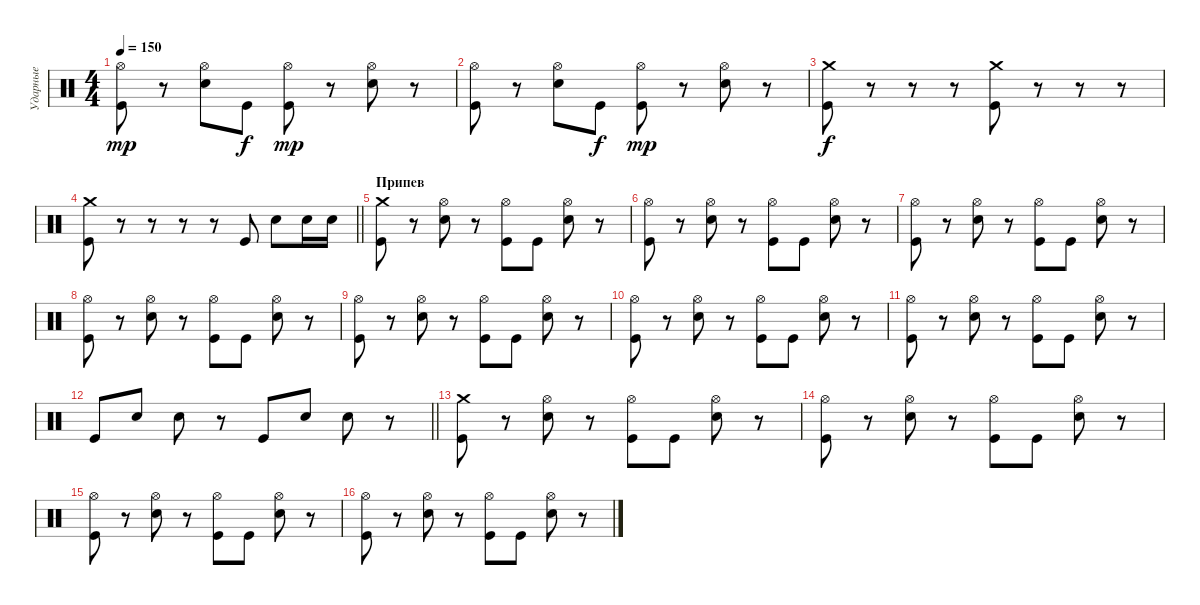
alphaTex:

\track ("Ударные" "Ударные") {instrument percussion}
\staff {score}
\articulation defaults
\ts (4 4)
\tempo 150
\clef neutral
\ks c
("Hi-Hat (open)" "Kick (hit)").8{dy mp} r.8 ("Hi-Hat (open)" "Electric Snare (hit)").8 "Kick (hit)".8{dy f} ("Hi-Hat (open)" "Kick (hit)").8{dy mp} r.8 ("Hi-Hat (open)" "Electric Snare (hit)").8 r.8 |
("Hi-Hat (open)" "Kick (hit)").8 r.8 ("Hi-Hat (open)" "Electric Snare (hit)").8 "Kick (hit)".8{dy f} ("Hi-Hat (open)" "Kick (hit)").8{dy mp} r.8 ("Hi-Hat (open)" "Electric Snare (hit)").8 r.8 |
("Crash medium (hit)" "Kick (hit)").8{dy f} r.8 r.8 r.8 ("Crash medium (hit)" "Kick (hit)").8 r.8 r.8 r.8 |
\barLineRight lightlight
("Crash medium (hit)" "Kick (hit)").8 r.8 r.8 r.8 r.8 "Kick (hit)".8 "Electric Snare (hit)".8 "Electric Snare (hit)".16 "Electric Snare (hit)".16 |
\section ("" "Припев")
("Crash medium (hit)" "Kick (hit)").8 r.8 ("Hi-Hat (open)" "Electric Snare (hit)").8 r.8 ("Hi-Hat (open)" "Kick (hit)").8 "Kick (hit)".8 ("Hi-Hat (open)" "Electric Snare (hit)").8 r.8 |
("Hi-Hat (open)" "Kick (hit)").8 r.8 ("Hi-Hat (open)" "Electric Snare (hit)").8 r.8 ("Hi-Hat (open)" "Kick (hit)").8 "Kick (hit)".8 ("Hi-Hat (open)" "Electric Snare (hit)").8 r.8 |
("Hi-Hat (open)" "Kick (hit)").8 r.8 ("Hi-Hat (open)" "Electric Snare (hit)").8 r.8 ("Hi-Hat (open)" "Kick (hit)").8 "Kick (hit)".8 ("Hi-Hat (open)" "Electric Snare (hit)").8 r.8 |
("Hi-Hat (open)" "Kick (hit)").8 r.8 ("Hi-Hat (open)" "Electric Snare (hit)").8 r.8 ("Hi-Hat (open)" "Kick (hit)").8 "Kick (hit)".8 ("Hi-Hat (open)" "Electric Snare (hit)").8 r.8 |
("Hi-Hat (open)" "Kick (hit)").8 r.8 ("Hi-Hat (open)" "Electric Snare (hit)").8 r.8 ("Hi-Hat (open)" "Kick (hit)").8 "Kick (hit)".8 ("Hi-Hat (open)" "Electric Snare (hit)").8 r.8 |
("Hi-Hat (open)" "Kick (hit)").8 r.8 ("Hi-Hat (open)" "Electric Snare (hit)").8 r.8 ("Hi-Hat (open)" "Kick (hit)").8 "Kick (hit)".8 ("Hi-Hat (open)" "Electric Snare (hit)").8 r.8 |
("Hi-Hat (open)" "Kick (hit)").8 r.8 ("Hi-Hat (open)" "Electric Snare (hit)").8 r.8 ("Hi-Hat (open)" "Kick (hit)").8 "Kick (hit)".8 ("Hi-Hat (open)" "Electric Snare (hit)").8 r.8 |
\barLineRight lightlight "Kick (hit)".8 "Electric Snare (hit)".8 "Electric Snare (hit)".8
r.8 "Kick (hit)".8 "Electric Snare (hit)".8 "Electric Snare (hit)".8 r.8 |
("Crash medium (hit)" "Kick (hit)").8 r.8 ("Hi-Hat (open)" "Electric Snare (hit)").8 r.8 ("Hi-Hat (open)" "Kick (hit)").8 "Kick (hit)".8 ("Hi-Hat (open)" "Electric Snare (hit)").8 r.8 |
("Hi-Hat (open)" "Kick (hit)").8 r.8 ("Hi-Hat (open)" "Electric Snare (hit)").8 r.8 ("Hi-Hat (open)" "Kick (hit)").8 "Kick (hit)".8 ("Hi-Hat (open)" "Electric Snare (hit)").8 r.8 |
("Hi-Hat (open)" "Kick (hit)").8 r.8 ("Hi-Hat (open)" "Electric Snare (hit)").8 r.8 ("Hi-Hat (open)" "Kick (hit)").8 "Kick (hit)".8 ("Hi-Hat (open)" "Electric Snare (hit)").8 r.8 |
("Hi-Hat (open)" "Kick (hit)").8 r.8 ("Hi-Hat (open)" "Electric Snare (hit)").8 r.8 ("Hi-Hat (open)" "Kick (hit)").8 "Kick (hit)".8 ("Hi-Hat (open)" "Electric Snare (hit)").8 r.8
